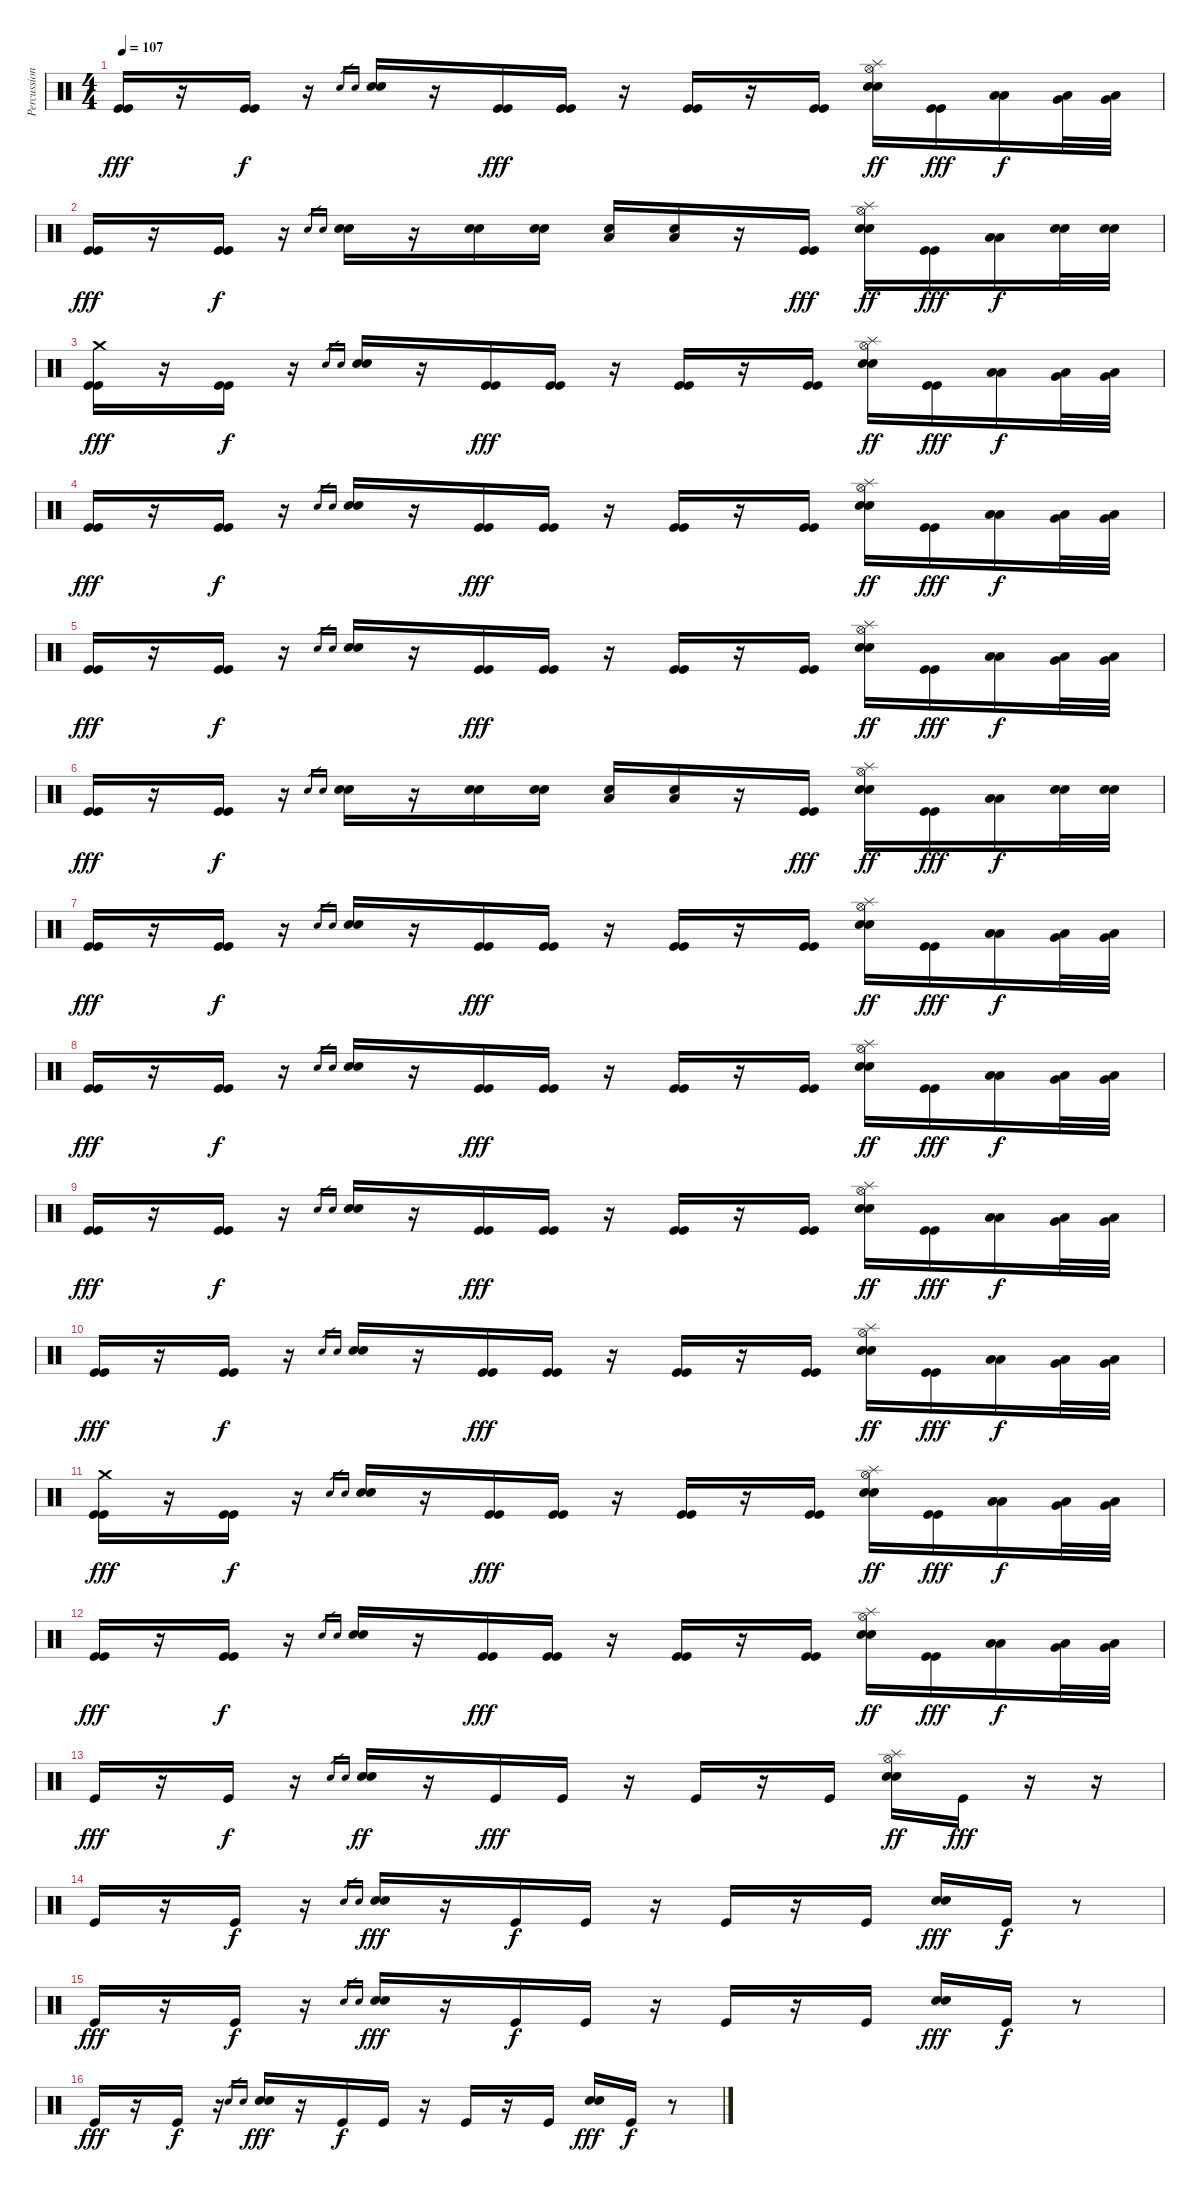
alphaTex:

\track ("Percussions" "Percussion") {instrument percussion}
\staff {score}
\articulation defaults
\ts (4 4)
\tempo 107
\clef neutral
\ks c
("Kick (hit)" "Kick (hit)").16{dy fff} r.16 ("Kick (hit)" "Kick (hit)").16{dy f} r.16 "Electric Snare (hit)".16{gr} "Electric Snare (hit)".16{gr} ("Electric Snare (hit)" "Electric Snare (hit)").16 r.16 ("Kick (hit)" "Kick (hit)").16{dy fff} ("Kick (hit)" "Kick (hit)").16 r.16 ("Kick (hit)" "Kick (hit)").16 r.16 ("Kick (hit)" "Kick (hit)").16 ("Splash (hit)" "Hi-Hat (open)" "Electric Snare (hit)" "Electric Snare (hit)").16{dy ff} ("Kick (hit)" "Kick (hit)").16{dy fff} ("Low Floor Tom (hit)" "Low Floor Tom (hit)").16{dy f} ("Low Floor Tom (hit)" "Very Low Tom (hit)").32 ("Very Low Tom (hit)" "Low Tom (hit)").32 |
("Kick (hit)" "Kick (hit)").16{dy fff} r.16 ("Kick (hit)" "Kick (hit)").16{dy f} r.16 "Electric Snare (hit)".16{gr} "Electric Snare (hit)".16{gr} ("Electric Snare (hit)" "Electric Snare (hit)").16 r.16 ("Electric Snare (hit)" "Electric Snare (hit)").16 ("Electric Snare (hit)" "Electric Snare (hit)").16 ("Low Floor Tom (hit)" "Electric Snare (hit)").16 ("Low Floor Tom (hit)" "Electric Snare (hit)").16 r.16 ("Kick (hit)" "Kick (hit)").16{dy fff} ("Splash (hit)" "Hi-Hat (open)" "Electric Snare (hit)" "Electric Snare (hit)").16{dy ff} ("Kick (hit)" "Kick (hit)").16{dy fff} ("Low Floor Tom (hit)" "Low Floor Tom (hit)").16{dy f} ("Electric Snare (hit)" "Electric Snare (hit)").32 ("Electric Snare (hit)" "Electric Snare (hit)").32 |
("Crash medium (hit)" "Kick (hit)" "Kick (hit)").16{dy fff} r.16 ("Kick (hit)" "Kick (hit)").16{dy f} r.16 "Electric Snare (hit)".16{gr} "Electric Snare (hit)".16{gr} ("Electric Snare (hit)" "Electric Snare (hit)").16 r.16 ("Kick (hit)" "Kick (hit)").16{dy fff} ("Kick (hit)" "Kick (hit)").16 r.16 ("Kick (hit)" "Kick (hit)").16 r.16 ("Kick (hit)" "Kick (hit)").16 ("Splash (hit)" "Hi-Hat (open)" "Electric Snare (hit)" "Electric Snare (hit)").16{dy ff} ("Kick (hit)" "Kick (hit)").16{dy fff} ("Low Floor Tom (hit)" "Low Floor Tom (hit)").16{dy f} ("Low Floor Tom (hit)" "Very Low Tom (hit)").32 ("Very Low Tom (hit)" "Low Tom (hit)").32 |
("Kick (hit)" "Kick (hit)").16{dy fff} r.16 ("Kick (hit)" "Kick (hit)").16{dy f} r.16 "Electric Snare (hit)".16{gr} "Electric Snare (hit)".16{gr} ("Electric Snare (hit)" "Electric Snare (hit)").16 r.16 ("Kick (hit)" "Kick (hit)").16{dy fff} ("Kick (hit)" "Kick (hit)").16 r.16 ("Kick (hit)" "Kick (hit)").16 r.16 ("Kick (hit)" "Kick (hit)").16 ("Splash (hit)" "Hi-Hat (open)" "Electric Snare (hit)" "Electric Snare (hit)").16{dy ff} ("Kick (hit)" "Kick (hit)").16{dy fff} ("Low Floor Tom (hit)" "Low Floor Tom (hit)").16{dy f} ("Low Floor Tom (hit)" "Very Low Tom (hit)").32 ("Very Low Tom (hit)" "Low Tom (hit)").32 |
("Kick (hit)" "Kick (hit)").16{dy fff} r.16 ("Kick (hit)" "Kick (hit)").16{dy f} r.16 "Electric Snare (hit)".16{gr} "Electric Snare (hit)".16{gr} ("Electric Snare (hit)" "Electric Snare (hit)").16 r.16 ("Kick (hit)" "Kick (hit)").16{dy fff} ("Kick (hit)" "Kick (hit)").16 r.16 ("Kick (hit)" "Kick (hit)").16 r.16 ("Kick (hit)" "Kick (hit)").16 ("Splash (hit)" "Hi-Hat (open)" "Electric Snare (hit)" "Electric Snare (hit)").16{dy ff} ("Kick (hit)" "Kick (hit)").16{dy fff} ("Low Floor Tom (hit)" "Low Floor Tom (hit)").16{dy f} ("Low Floor Tom (hit)" "Very Low Tom (hit)").32 ("Very Low Tom (hit)" "Low Tom (hit)").32 |
("Kick (hit)" "Kick (hit)").16{dy fff} r.16 ("Kick (hit)" "Kick (hit)").16{dy f} r.16 "Electric Snare (hit)".16{gr} "Electric Snare (hit)".16{gr} ("Electric Snare (hit)" "Electric Snare (hit)").16 r.16 ("Electric Snare (hit)" "Electric Snare (hit)").16 ("Electric Snare (hit)" "Electric Snare (hit)").16 ("Low Floor Tom (hit)" "Electric Snare (hit)").16 ("Low Floor Tom (hit)" "Electric Snare (hit)").16 r.16 ("Kick (hit)" "Kick (hit)").16{dy fff} ("Splash (hit)" "Hi-Hat (open)" "Electric Snare (hit)" "Electric Snare (hit)").16{dy ff} ("Kick (hit)" "Kick (hit)").16{dy fff} ("Low Floor Tom (hit)" "Low Floor Tom (hit)").16{dy f} ("Electric Snare (hit)" "Electric Snare (hit)").32 ("Electric Snare (hit)" "Electric Snare (hit)").32 |
("Kick (hit)" "Kick (hit)").16{dy fff} r.16 ("Kick (hit)" "Kick (hit)").16{dy f} r.16 "Electric Snare (hit)".16{gr} "Electric Snare (hit)".16{gr} ("Electric Snare (hit)" "Electric Snare (hit)").16 r.16 ("Kick (hit)" "Kick (hit)").16{dy fff} ("Kick (hit)" "Kick (hit)").16 r.16 ("Kick (hit)" "Kick (hit)").16 r.16 ("Kick (hit)" "Kick (hit)").16 ("Splash (hit)" "Hi-Hat (open)" "Electric Snare (hit)" "Electric Snare (hit)").16{dy ff} ("Kick (hit)" "Kick (hit)").16{dy fff} ("Low Floor Tom (hit)" "Low Floor Tom (hit)").16{dy f} ("Low Floor Tom (hit)" "Very Low Tom (hit)").32 ("Very Low Tom (hit)" "Low Tom (hit)").32 |
("Kick (hit)" "Kick (hit)").16{dy fff} r.16 ("Kick (hit)" "Kick (hit)").16{dy f} r.16 "Electric Snare (hit)".16{gr} "Electric Snare (hit)".16{gr} ("Electric Snare (hit)" "Electric Snare (hit)").16 r.16 ("Kick (hit)" "Kick (hit)").16{dy fff} ("Kick (hit)" "Kick (hit)").16 r.16 ("Kick (hit)" "Kick (hit)").16 r.16 ("Kick (hit)" "Kick (hit)").16 ("Splash (hit)" "Hi-Hat (open)" "Electric Snare (hit)" "Electric Snare (hit)").16{dy ff} ("Kick (hit)" "Kick (hit)").16{dy fff} ("Low Floor Tom (hit)" "Low Floor Tom (hit)").16{dy f} ("Low Floor Tom (hit)" "Very Low Tom (hit)").32 ("Very Low Tom (hit)" "Low Tom (hit)").32 |
("Kick (hit)" "Kick (hit)").16{dy fff} r.16 ("Kick (hit)" "Kick (hit)").16{dy f} r.16 "Electric Snare (hit)".16{gr} "Electric Snare (hit)".16{gr} ("Electric Snare (hit)" "Electric Snare (hit)").16 r.16 ("Kick (hit)" "Kick (hit)").16{dy fff} ("Kick (hit)" "Kick (hit)").16 r.16 ("Kick (hit)" "Kick (hit)").16 r.16 ("Kick (hit)" "Kick (hit)").16 ("Splash (hit)" "Hi-Hat (open)" "Electric Snare (hit)" "Electric Snare (hit)").16{dy ff} ("Kick (hit)" "Kick (hit)").16{dy fff} ("Low Floor Tom (hit)" "Low Floor Tom (hit)").16{dy f} ("Low Floor Tom (hit)" "Very Low Tom (hit)").32 ("Very Low Tom (hit)" "Low Tom (hit)").32 |
("Kick (hit)" "Kick (hit)").16{dy fff} r.16 ("Kick (hit)" "Kick (hit)").16{dy f} r.16 "Electric Snare (hit)".16{gr} "Electric Snare (hit)".16{gr} ("Electric Snare (hit)" "Electric Snare (hit)").16 r.16 ("Kick (hit)" "Kick (hit)").16{dy fff} ("Kick (hit)" "Kick (hit)").16 r.16 ("Kick (hit)" "Kick (hit)").16 r.16 ("Kick (hit)" "Kick (hit)").16 ("Splash (hit)" "Hi-Hat (open)" "Electric Snare (hit)" "Electric Snare (hit)").16{dy ff} ("Kick (hit)" "Kick (hit)").16{dy fff} ("Low Floor Tom (hit)" "Low Floor Tom (hit)").16{dy f} ("Low Floor Tom (hit)" "Very Low Tom (hit)").32 ("Very Low Tom (hit)" "Low Tom (hit)").32 |
("Crash medium (hit)" "Kick (hit)" "Kick (hit)").16{dy fff} r.16 ("Kick (hit)" "Kick (hit)").16{dy f} r.16 "Electric Snare (hit)".16{gr} "Electric Snare (hit)".16{gr} ("Electric Snare (hit)" "Electric Snare (hit)").16 r.16 ("Kick (hit)" "Kick (hit)").16{dy fff} ("Kick (hit)" "Kick (hit)").16 r.16 ("Kick (hit)" "Kick (hit)").16 r.16 ("Kick (hit)" "Kick (hit)").16 ("Splash (hit)" "Hi-Hat (open)" "Electric Snare (hit)" "Electric Snare (hit)").16{dy ff} ("Kick (hit)" "Kick (hit)").16{dy fff} ("Low Floor Tom (hit)" "Low Floor Tom (hit)").16{dy f} ("Low Floor Tom (hit)" "Very Low Tom (hit)").32 ("Very Low Tom (hit)" "Low Tom (hit)").32 |
("Kick (hit)" "Kick (hit)").16{dy fff} r.16 ("Kick (hit)" "Kick (hit)").16{dy f} r.16 "Electric Snare (hit)".16{gr} "Electric Snare (hit)".16{gr} ("Electric Snare (hit)" "Electric Snare (hit)").16 r.16 ("Kick (hit)" "Kick (hit)").16{dy fff} ("Kick (hit)" "Kick (hit)").16 r.16 ("Kick (hit)" "Kick (hit)").16 r.16 ("Kick (hit)" "Kick (hit)").16 ("Splash (hit)" "Hi-Hat (open)" "Electric Snare (hit)" "Electric Snare (hit)").16{dy ff} ("Kick (hit)" "Kick (hit)").16{dy fff} ("Low Floor Tom (hit)" "Low Floor Tom (hit)").16{dy f} ("Low Floor Tom (hit)" "Very Low Tom (hit)").32 ("Very Low Tom (hit)" "Low Tom (hit)").32 |
"Kick (hit)".16{dy fff} r.16 "Kick (hit)".16{dy f} r.16 "Electric Snare (hit)".16{gr} "Electric Snare (hit)".16{gr} ("Electric Snare (hit)" "Electric Snare (hit)").16{dy ff} r.16 "Kick (hit)".16{dy fff} "Kick (hit)".16 r.16 "Kick (hit)".16 r.16 "Kick (hit)".16 ("Splash (hit)" "Hi-Hat (open)" "Electric Snare (hit)" "Electric Snare (hit)").16{dy ff} "Kick (hit)".16{dy fff} r.16 r.16 |
"Kick (hit)".16 r.16 "Kick (hit)".16{dy f} r.16 "Electric Snare (hit)".16{gr} "Electric Snare (hit)".16{gr} ("Electric Snare (hit)" "Electric Snare (hit)").16{dy fff} r.16 "Kick (hit)".16{dy f} "Kick (hit)".16 r.16 "Kick (hit)".16 r.16 "Kick (hit)".16 ("Electric Snare (hit)" "Electric Snare (hit)").16{dy fff} "Kick (hit)".16{dy f} r.8 |
"Kick (hit)".16{dy fff} r.16 "Kick (hit)".16{dy f} r.16 "Electric Snare (hit)".16{gr} "Electric Snare (hit)".16{gr} ("Electric Snare (hit)" "Electric Snare (hit)").16{dy fff} r.16 "Kick (hit)".16{dy f} "Kick (hit)".16 r.16 "Kick (hit)".16 r.16 "Kick (hit)".16 ("Electric Snare (hit)" "Electric Snare (hit)").16{dy fff} "Kick (hit)".16{dy f} r.8 |
"Kick (hit)".16{dy fff} r.16 "Kick (hit)".16{dy f} r.16 "Electric Snare (hit)".16{gr} "Electric Snare (hit)".16{gr} ("Electric Snare (hit)" "Electric Snare (hit)").16{dy fff} r.16 "Kick (hit)".16{dy f} "Kick (hit)".16 r.16 "Kick (hit)".16 r.16 "Kick (hit)".16 ("Electric Snare (hit)" "Electric Snare (hit)").16{dy fff} "Kick (hit)".16{dy f} r.8
